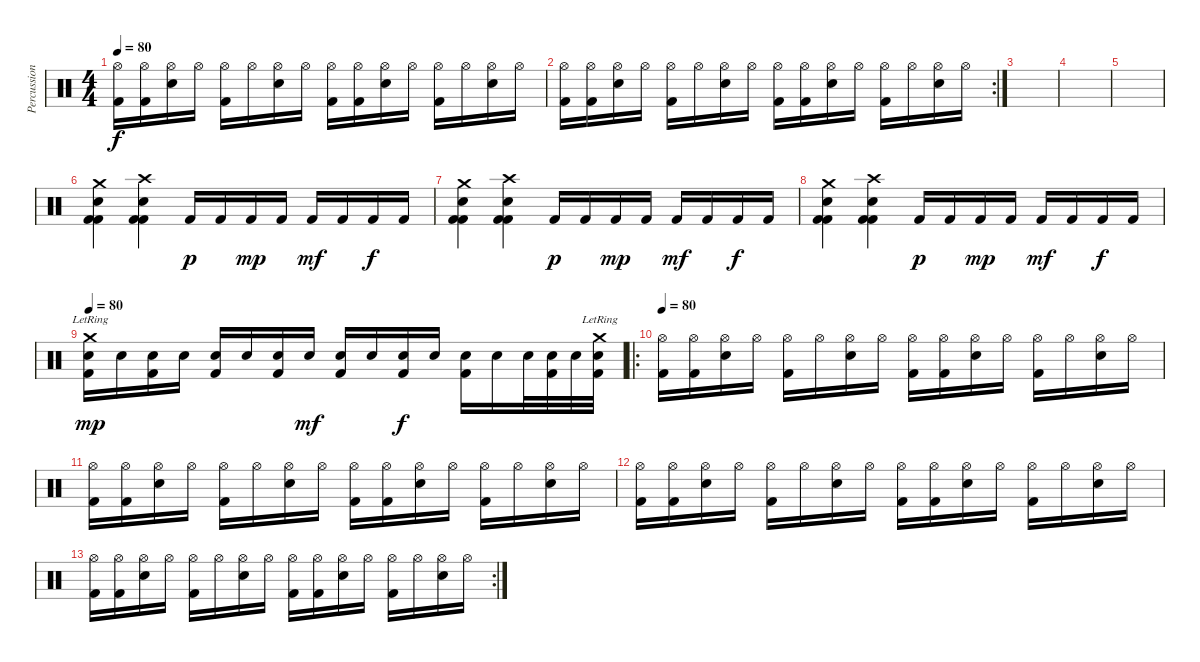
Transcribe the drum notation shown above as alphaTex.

\track ("Percussion" "Percussion") {instrument percussion}
\staff {score}
\articulation defaults
\ts (4 4)
\tempo 80
\clef neutral
\ks c
("Hi-Hat (open)" "Kick (hit) 2").16{dy f} ("Hi-Hat (open)" "Kick (hit) 2").16 ("Hi-Hat (open)" "Snare (hit) 2").16 "Hi-Hat (open)".16 ("Hi-Hat (open)" "Kick (hit) 2").16 "Hi-Hat (open)".16 ("Hi-Hat (open)" "Snare (hit) 2").16 "Hi-Hat (open)".16 ("Hi-Hat (open)" "Kick (hit) 2").16 ("Hi-Hat (open)" "Kick (hit) 2").16 ("Hi-Hat (open)" "Snare (hit) 2").16 "Hi-Hat (open)".16 ("Hi-Hat (open)" "Kick (hit) 2").16 "Hi-Hat (open)".16 ("Hi-Hat (open)" "Snare (hit) 2").16 "Hi-Hat (open)".16 |
\rc 2
("Hi-Hat (open)" "Kick (hit) 2").16 ("Hi-Hat (open)" "Kick (hit) 2").16 ("Hi-Hat (open)" "Snare (hit) 2").16 "Hi-Hat (open)".16 ("Hi-Hat (open)" "Kick (hit) 2").16 "Hi-Hat (open)".16 ("Hi-Hat (open)" "Snare (hit) 2").16 "Hi-Hat (open)".16 ("Hi-Hat (open)" "Kick (hit) 2").16 ("Hi-Hat (open)" "Kick (hit) 2").16 ("Hi-Hat (open)" "Snare (hit) 2").16 "Hi-Hat (open)".16 ("Hi-Hat (open)" "Kick (hit) 2").16 "Hi-Hat (open)".16 ("Hi-Hat (open)" "Snare (hit) 2").16 "Hi-Hat (open)".16 |
|
|
|
("Crash medium (hit)" "Snare (hit) 2" "Kick (hit) 2" "Kick (hit) 2").4 ("Crash high (hit)" "Snare (hit) 2" "Kick (hit) 2" "Kick (hit) 2").4 "Kick (hit) 2".16{dy p} "Kick (hit) 2".16 "Kick (hit) 2".16{dy mp} "Kick (hit) 2".16 "Kick (hit) 2".16{dy mf} "Kick (hit) 2".16 "Kick (hit) 2".16{dy f} "Kick (hit) 2".16 |
("Crash medium (hit)" "Snare (hit) 2" "Kick (hit) 2" "Kick (hit) 2").4 ("Crash high (hit)" "Snare (hit) 2" "Kick (hit) 2" "Kick (hit) 2").4 "Kick (hit) 2".16{dy p} "Kick (hit) 2".16 "Kick (hit) 2".16{dy mp} "Kick (hit) 2".16 "Kick (hit) 2".16{dy mf} "Kick (hit) 2".16 "Kick (hit) 2".16{dy f} "Kick (hit) 2".16 |
("Crash medium (hit)" "Snare (hit) 2" "Kick (hit) 2" "Kick (hit) 2").4 ("Crash high (hit)" "Snare (hit) 2" "Kick (hit) 2" "Kick (hit) 2").4 "Kick (hit) 2".16{dy p} "Kick (hit) 2".16 "Kick (hit) 2".16{dy mp} "Kick (hit) 2".16 "Kick (hit) 2".16{dy mf} "Kick (hit) 2".16 "Kick (hit) 2".16{dy f} "Kick (hit) 2".16 |
\tempo 80
("Crash medium (hit)"{lr} "Snare (hit) 2" "Kick (hit) 2").16{dy mp} "Snare (hit) 2".16 ("Snare (hit) 2" "Kick (hit) 2").16 "Snare (hit) 2".16 ("Snare (hit) 2" "Kick (hit) 2").16 "Snare (hit) 2".16 ("Snare (hit) 2" "Kick (hit) 2").16 "Snare (hit) 2".16{dy mf} ("Snare (hit) 2" "Kick (hit) 2").16 "Snare (hit) 2".16 ("Snare (hit) 2" "Kick (hit) 2").16{dy f} "Snare (hit) 2".16 ("Snare (hit) 2" "Kick (hit) 2").16 "Snare (hit) 2".16 "Snare (hit) 2".32 ("Snare (hit) 2" "Kick (hit) 2").32 "Snare (hit) 2".32 ("Crash medium (hit)"{lr} "Snare (hit) 2" "Kick (hit) 2").32 |
\ro
\tempo 80
("Hi-Hat (open)" "Kick (hit) 2").16 ("Hi-Hat (open)" "Kick (hit) 2").16 ("Hi-Hat (open)" "Snare (hit) 2").16 "Hi-Hat (open)".16 ("Hi-Hat (open)" "Kick (hit) 2").16 "Hi-Hat (open)".16 ("Hi-Hat (open)" "Snare (hit) 2").16 "Hi-Hat (open)".16 ("Hi-Hat (open)" "Kick (hit) 2").16 ("Hi-Hat (open)" "Kick (hit) 2").16 ("Hi-Hat (open)" "Snare (hit) 2").16 "Hi-Hat (open)".16 ("Hi-Hat (open)" "Kick (hit) 2").16 "Hi-Hat (open)".16 ("Hi-Hat (open)" "Snare (hit) 2").16 "Hi-Hat (open)".16 |
("Hi-Hat (open)" "Kick (hit) 2").16 ("Hi-Hat (open)" "Kick (hit) 2").16 ("Hi-Hat (open)" "Snare (hit) 2").16 "Hi-Hat (open)".16 ("Hi-Hat (open)" "Kick (hit) 2").16 "Hi-Hat (open)".16 ("Hi-Hat (open)" "Snare (hit) 2").16 "Hi-Hat (open)".16 ("Hi-Hat (open)" "Kick (hit) 2").16 ("Hi-Hat (open)" "Kick (hit) 2").16 ("Hi-Hat (open)" "Snare (hit) 2").16 "Hi-Hat (open)".16 ("Hi-Hat (open)" "Kick (hit) 2").16 "Hi-Hat (open)".16 ("Hi-Hat (open)" "Snare (hit) 2").16 "Hi-Hat (open)".16 |
("Hi-Hat (open)" "Kick (hit) 2").16 ("Hi-Hat (open)" "Kick (hit) 2").16 ("Hi-Hat (open)" "Snare (hit) 2").16 "Hi-Hat (open)".16 ("Hi-Hat (open)" "Kick (hit) 2").16 "Hi-Hat (open)".16 ("Hi-Hat (open)" "Snare (hit) 2").16 "Hi-Hat (open)".16 ("Hi-Hat (open)" "Kick (hit) 2").16 ("Hi-Hat (open)" "Kick (hit) 2").16 ("Hi-Hat (open)" "Snare (hit) 2").16 "Hi-Hat (open)".16 ("Hi-Hat (open)" "Kick (hit) 2").16 "Hi-Hat (open)".16 ("Hi-Hat (open)" "Snare (hit) 2").16 "Hi-Hat (open)".16 |
\rc 2
("Hi-Hat (open)" "Kick (hit) 2").16 ("Hi-Hat (open)" "Kick (hit) 2").16 ("Hi-Hat (open)" "Snare (hit) 2").16 "Hi-Hat (open)".16 ("Hi-Hat (open)" "Kick (hit) 2").16 "Hi-Hat (open)".16 ("Hi-Hat (open)" "Snare (hit) 2").16 "Hi-Hat (open)".16 ("Hi-Hat (open)" "Kick (hit) 2").16 ("Hi-Hat (open)" "Kick (hit) 2").16 ("Hi-Hat (open)" "Snare (hit) 2").16 "Hi-Hat (open)".16 ("Hi-Hat (open)" "Kick (hit) 2").16 "Hi-Hat (open)".16 ("Hi-Hat (open)" "Snare (hit) 2").16 "Hi-Hat (open)".16
